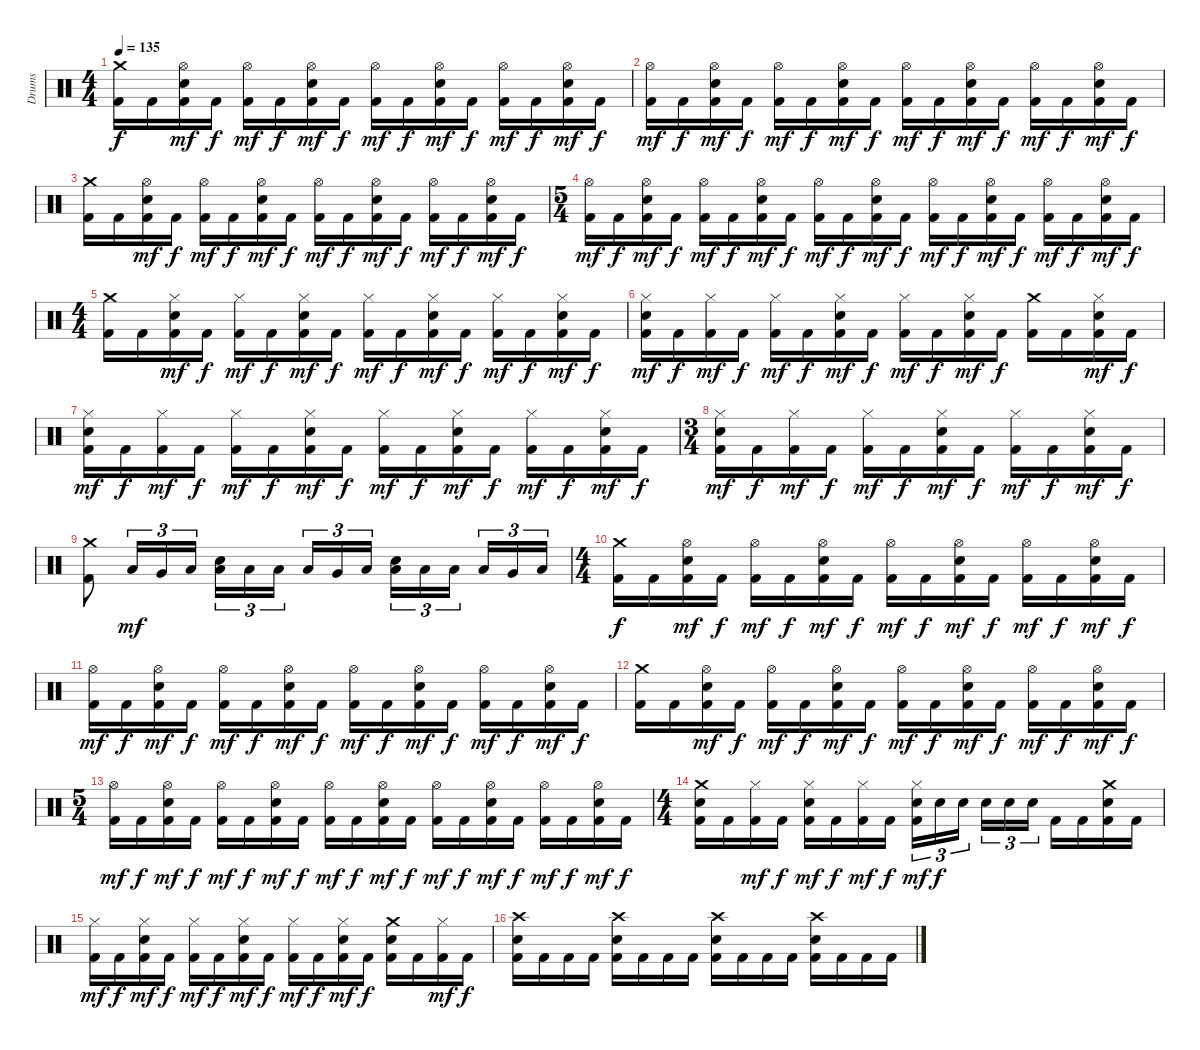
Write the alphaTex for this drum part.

\track ("Drums" "Drums") {instrument percussion}
\staff {score}
\articulation defaults
\ts (4 4)
\tempo 135
\clef neutral
\ks c
("Crash medium (hit)" "Kick (hit) 2").16{dy f} "Kick (hit) 2".16 ("Hi-Hat (open)" "Electric Snare (hit)" "Kick (hit) 2").16{dy mf} "Kick (hit) 2".16{dy f} ("Hi-Hat (open)" "Kick (hit) 2").16{dy mf} "Kick (hit) 2".16{dy f} ("Hi-Hat (open)" "Electric Snare (hit)" "Kick (hit) 2").16{dy mf} "Kick (hit) 2".16{dy f} ("Hi-Hat (open)" "Kick (hit) 2").16{dy mf} "Kick (hit) 2".16{dy f} ("Hi-Hat (open)" "Electric Snare (hit)" "Kick (hit) 2").16{dy mf} "Kick (hit) 2".16{dy f} ("Hi-Hat (open)" "Kick (hit) 2").16{dy mf} "Kick (hit) 2".16{dy f} ("Hi-Hat (open)" "Electric Snare (hit)" "Kick (hit) 2").16{dy mf} "Kick (hit) 2".16{dy f} |
("Hi-Hat (open)" "Kick (hit) 2").16{dy mf} "Kick (hit) 2".16{dy f} ("Hi-Hat (open)" "Electric Snare (hit)" "Kick (hit) 2").16{dy mf} "Kick (hit) 2".16{dy f} ("Hi-Hat (open)" "Kick (hit) 2").16{dy mf} "Kick (hit) 2".16{dy f} ("Hi-Hat (open)" "Electric Snare (hit)" "Kick (hit) 2").16{dy mf} "Kick (hit) 2".16{dy f} ("Hi-Hat (open)" "Kick (hit) 2").16{dy mf} "Kick (hit) 2".16{dy f} ("Hi-Hat (open)" "Electric Snare (hit)" "Kick (hit) 2").16{dy mf} "Kick (hit) 2".16{dy f} ("Hi-Hat (open)" "Kick (hit) 2").16{dy mf} "Kick (hit) 2".16{dy f} ("Hi-Hat (open)" "Electric Snare (hit)" "Kick (hit) 2").16{dy mf} "Kick (hit) 2".16{dy f} |
("Crash medium (hit)" "Kick (hit) 2").16 "Kick (hit) 2".16 ("Hi-Hat (open)" "Electric Snare (hit)" "Kick (hit) 2").16{dy mf} "Kick (hit) 2".16{dy f} ("Hi-Hat (open)" "Kick (hit) 2").16{dy mf} "Kick (hit) 2".16{dy f} ("Hi-Hat (open)" "Electric Snare (hit)" "Kick (hit) 2").16{dy mf} "Kick (hit) 2".16{dy f} ("Hi-Hat (open)" "Kick (hit) 2").16{dy mf} "Kick (hit) 2".16{dy f} ("Hi-Hat (open)" "Electric Snare (hit)" "Kick (hit) 2").16{dy mf} "Kick (hit) 2".16{dy f} ("Hi-Hat (open)" "Kick (hit) 2").16{dy mf} "Kick (hit) 2".16{dy f} ("Hi-Hat (open)" "Electric Snare (hit)" "Kick (hit) 2").16{dy mf} "Kick (hit) 2".16{dy f} |
\ts (5 4)
("Hi-Hat (open)" "Kick (hit) 2").16{dy mf} "Kick (hit) 2".16{dy f} ("Hi-Hat (open)" "Electric Snare (hit)" "Kick (hit) 2").16{dy mf} "Kick (hit) 2".16{dy f} ("Hi-Hat (open)" "Kick (hit) 2").16{dy mf} "Kick (hit) 2".16{dy f} ("Hi-Hat (open)" "Electric Snare (hit)" "Kick (hit) 2").16{dy mf} "Kick (hit) 2".16{dy f} ("Hi-Hat (open)" "Kick (hit) 2").16{dy mf} "Kick (hit) 2".16{dy f} ("Hi-Hat (open)" "Electric Snare (hit)" "Kick (hit) 2").16{dy mf} "Kick (hit) 2".16{dy f} ("Hi-Hat (open)" "Kick (hit) 2").16{dy mf} "Kick (hit) 2".16{dy f} ("Hi-Hat (open)" "Electric Snare (hit)" "Kick (hit) 2").16{dy mf} "Kick (hit) 2".16{dy f} ("Hi-Hat (open)" "Kick (hit) 2").16{dy mf} "Kick (hit) 2".16{dy f} ("Hi-Hat (open)" "Electric Snare (hit)" "Kick (hit) 2").16{dy mf} "Kick (hit) 2".16{dy f} |
\ts (4 4)
("Crash medium (hit)" "Kick (hit) 2").16 "Kick (hit) 2".16 ("Hi-Hat (closed)" "Electric Snare (hit)" "Kick (hit) 2").16{dy mf} "Kick (hit) 2".16{dy f} ("Hi-Hat (closed)" "Kick (hit) 2").16{dy mf} "Kick (hit) 2".16{dy f} ("Hi-Hat (closed)" "Electric Snare (hit)" "Kick (hit) 2").16{dy mf} "Kick (hit) 2".16{dy f} ("Hi-Hat (closed)" "Kick (hit) 2").16{dy mf} "Kick (hit) 2".16{dy f} ("Hi-Hat (closed)" "Electric Snare (hit)" "Kick (hit) 2").16{dy mf} "Kick (hit) 2".16{dy f} ("Hi-Hat (closed)" "Kick (hit) 2").16{dy mf} "Kick (hit) 2".16{dy f} ("Hi-Hat (closed)" "Electric Snare (hit)" "Kick (hit) 2").16{dy mf} "Kick (hit) 2".16{dy f} |
("Hi-Hat (closed)" "Electric Snare (hit)" "Kick (hit) 2").16{dy mf} "Kick (hit) 2".16{dy f} ("Hi-Hat (closed)" "Kick (hit) 2").16{dy mf} "Kick (hit) 2".16{dy f} ("Hi-Hat (closed)" "Kick (hit) 2").16{dy mf} "Kick (hit) 2".16{dy f} ("Hi-Hat (closed)" "Electric Snare (hit)" "Kick (hit) 2").16{dy mf} "Kick (hit) 2".16{dy f} ("Hi-Hat (closed)" "Kick (hit) 2").16{dy mf} "Kick (hit) 2".16{dy f} ("Hi-Hat (closed)" "Electric Snare (hit)" "Kick (hit) 2").16{dy mf} "Kick (hit) 2".16{dy f} ("Crash medium (hit)" "Kick (hit) 2").16 "Kick (hit) 2".16 ("Hi-Hat (closed)" "Electric Snare (hit)" "Kick (hit) 2").16{dy mf} "Kick (hit) 2".16{dy f} |
("Hi-Hat (closed)" "Electric Snare (hit)" "Kick (hit) 2").16{dy mf} "Kick (hit) 2".16{dy f} ("Hi-Hat (closed)" "Kick (hit) 2").16{dy mf} "Kick (hit) 2".16{dy f} ("Hi-Hat (closed)" "Kick (hit) 2").16{dy mf} "Kick (hit) 2".16{dy f} ("Hi-Hat (closed)" "Electric Snare (hit)" "Kick (hit) 2").16{dy mf} "Kick (hit) 2".16{dy f} ("Hi-Hat (closed)" "Kick (hit) 2").16{dy mf} "Kick (hit) 2".16{dy f} ("Hi-Hat (closed)" "Electric Snare (hit)" "Kick (hit) 2").16{dy mf} "Kick (hit) 2".16{dy f} ("Hi-Hat (closed)" "Kick (hit) 2").16{dy mf} "Kick (hit) 2".16{dy f} ("Hi-Hat (closed)" "Electric Snare (hit)" "Kick (hit) 2").16{dy mf} "Kick (hit) 2".16{dy f} |
\ts (3 4)
("Hi-Hat (closed)" "Electric Snare (hit)" "Kick (hit) 2").16{dy mf} "Kick (hit) 2".16{dy f} ("Hi-Hat (closed)" "Kick (hit) 2").16{dy mf} "Kick (hit) 2".16{dy f} ("Hi-Hat (closed)" "Kick (hit) 2").16{dy mf} "Kick (hit) 2".16{dy f} ("Hi-Hat (closed)" "Electric Snare (hit)" "Kick (hit) 2").16{dy mf} "Kick (hit) 2".16{dy f} ("Hi-Hat (closed)" "Kick (hit) 2").16{dy mf} "Kick (hit) 2".16{dy f} ("Hi-Hat (closed)" "Electric Snare (hit)" "Kick (hit) 2").16{dy mf} "Kick (hit) 2".16{dy f} |
("Crash medium (hit)" "Kick (hit) 2").8 "Low Tom (hit)".16{tu (3 2) dy mf} "Very Low Tom (hit)".16{tu (3 2)} "Low Floor Tom (hit)".16{tu (3 2)} ("Low Tom (hit)" "Electric Snare (hit)").16{tu (3 2)} "Low Tom (hit)".16{tu (3 2)} "Low Tom (hit)".16{tu (3 2)} "Low Tom (hit)".16{tu (3 2)} "Very Low Tom (hit)".16{tu (3 2)} "Low Floor Tom (hit)".16{tu (3 2)} ("Low Tom (hit)" "Electric Snare (hit)").16{tu (3 2)} "Low Tom (hit)".16{tu (3 2)} "Low Tom (hit)".16{tu (3 2)} "Low Tom (hit)".16{tu (3 2)} "Very Low Tom (hit)".16{tu (3 2)} "Low Floor Tom (hit)".16{tu (3 2)} |
\ts (4 4)
("Crash medium (hit)" "Kick (hit) 2").16{dy f} "Kick (hit) 2".16 ("Hi-Hat (open)" "Electric Snare (hit)" "Kick (hit) 2").16{dy mf} "Kick (hit) 2".16{dy f} ("Hi-Hat (open)" "Kick (hit) 2").16{dy mf} "Kick (hit) 2".16{dy f} ("Hi-Hat (open)" "Electric Snare (hit)" "Kick (hit) 2").16{dy mf} "Kick (hit) 2".16{dy f} ("Hi-Hat (open)" "Kick (hit) 2").16{dy mf} "Kick (hit) 2".16{dy f} ("Hi-Hat (open)" "Electric Snare (hit)" "Kick (hit) 2").16{dy mf} "Kick (hit) 2".16{dy f} ("Hi-Hat (open)" "Kick (hit) 2").16{dy mf} "Kick (hit) 2".16{dy f} ("Hi-Hat (open)" "Electric Snare (hit)" "Kick (hit) 2").16{dy mf} "Kick (hit) 2".16{dy f} |
("Hi-Hat (open)" "Kick (hit) 2").16{dy mf} "Kick (hit) 2".16{dy f} ("Hi-Hat (open)" "Electric Snare (hit)" "Kick (hit) 2").16{dy mf} "Kick (hit) 2".16{dy f} ("Hi-Hat (open)" "Kick (hit) 2").16{dy mf} "Kick (hit) 2".16{dy f} ("Hi-Hat (open)" "Electric Snare (hit)" "Kick (hit) 2").16{dy mf} "Kick (hit) 2".16{dy f} ("Hi-Hat (open)" "Kick (hit) 2").16{dy mf} "Kick (hit) 2".16{dy f} ("Hi-Hat (open)" "Electric Snare (hit)" "Kick (hit) 2").16{dy mf} "Kick (hit) 2".16{dy f} ("Hi-Hat (open)" "Kick (hit) 2").16{dy mf} "Kick (hit) 2".16{dy f} ("Hi-Hat (open)" "Electric Snare (hit)" "Kick (hit) 2").16{dy mf} "Kick (hit) 2".16{dy f} |
("Crash medium (hit)" "Kick (hit) 2").16 "Kick (hit) 2".16 ("Hi-Hat (open)" "Electric Snare (hit)" "Kick (hit) 2").16{dy mf} "Kick (hit) 2".16{dy f} ("Hi-Hat (open)" "Kick (hit) 2").16{dy mf} "Kick (hit) 2".16{dy f} ("Hi-Hat (open)" "Electric Snare (hit)" "Kick (hit) 2").16{dy mf} "Kick (hit) 2".16{dy f} ("Hi-Hat (open)" "Kick (hit) 2").16{dy mf} "Kick (hit) 2".16{dy f} ("Hi-Hat (open)" "Electric Snare (hit)" "Kick (hit) 2").16{dy mf} "Kick (hit) 2".16{dy f} ("Hi-Hat (open)" "Kick (hit) 2").16{dy mf} "Kick (hit) 2".16{dy f} ("Hi-Hat (open)" "Electric Snare (hit)" "Kick (hit) 2").16{dy mf} "Kick (hit) 2".16{dy f} |
\ts (5 4)
("Hi-Hat (open)" "Kick (hit) 2").16{dy mf} "Kick (hit) 2".16{dy f} ("Hi-Hat (open)" "Electric Snare (hit)" "Kick (hit) 2").16{dy mf} "Kick (hit) 2".16{dy f} ("Hi-Hat (open)" "Kick (hit) 2").16{dy mf} "Kick (hit) 2".16{dy f} ("Hi-Hat (open)" "Electric Snare (hit)" "Kick (hit) 2").16{dy mf} "Kick (hit) 2".16{dy f} ("Hi-Hat (open)" "Kick (hit) 2").16{dy mf} "Kick (hit) 2".16{dy f} ("Hi-Hat (open)" "Electric Snare (hit)" "Kick (hit) 2").16{dy mf} "Kick (hit) 2".16{dy f} ("Hi-Hat (open)" "Kick (hit) 2").16{dy mf} "Kick (hit) 2".16{dy f} ("Hi-Hat (open)" "Electric Snare (hit)" "Kick (hit) 2").16{dy mf} "Kick (hit) 2".16{dy f} ("Hi-Hat (open)" "Kick (hit) 2").16{dy mf} "Kick (hit) 2".16{dy f} ("Hi-Hat (open)" "Electric Snare (hit)" "Kick (hit) 2").16{dy mf} "Kick (hit) 2".16{dy f} |
\ts (4 4)
("Crash medium (hit)" "Electric Snare (hit)" "Kick (hit) 2").16 "Kick (hit) 2".16 ("Hi-Hat (closed)" "Kick (hit) 2").16{dy mf} "Kick (hit) 2".16{dy f} ("Hi-Hat (closed)" "Electric Snare (hit)" "Kick (hit) 2").16{dy mf} "Kick (hit) 2".16{dy f} ("Hi-Hat (closed)" "Kick (hit) 2").16{dy mf} "Kick (hit) 2".16{dy f} ("Hi-Hat (closed)" "Electric Snare (hit)" "Kick (hit) 2").16{tu (3 2) dy mf} "Electric Snare (hit)".16{tu (3 2) dy f} "Electric Snare (hit)".16{tu (3 2)} "Electric Snare (hit)".16{tu (3 2)} "Electric Snare (hit)".16{tu (3 2)} "Electric Snare (hit)".16{tu (3 2)} "Kick (hit) 2".16 "Kick (hit) 2".16 ("Crash medium (hit)" "Electric Snare (hit)" "Kick (hit) 2").16 "Kick (hit) 2".16 |
("Hi-Hat (closed)" "Kick (hit) 2").16{dy mf} "Kick (hit) 2".16{dy f} ("Hi-Hat (closed)" "Electric Snare (hit)" "Kick (hit) 2").16{dy mf} "Kick (hit) 2".16{dy f} ("Hi-Hat (closed)" "Kick (hit) 2").16{dy mf} "Kick (hit) 2".16{dy f} ("Hi-Hat (closed)" "Electric Snare (hit)" "Kick (hit) 2").16{dy mf} "Kick (hit) 2".16{dy f} ("Hi-Hat (closed)" "Kick (hit) 2").16{dy mf} "Kick (hit) 2".16{dy f} ("Hi-Hat (closed)" "Electric Snare (hit)" "Kick (hit) 2").16{dy mf} "Kick (hit) 2".16{dy f} ("Crash medium (hit)" "Electric Snare (hit)" "Kick (hit) 2").16 "Kick (hit) 2".16 ("Hi-Hat (closed)" "Kick (hit) 2").16{dy mf} "Kick (hit) 2".16{dy f} |
("Crash high (hit)" "Electric Snare (hit)" "Kick (hit) 2").16 "Kick (hit) 2".16 "Kick (hit) 2".16 "Kick (hit) 2".16 ("Crash high (hit)" "Electric Snare (hit)" "Kick (hit) 2").16 "Kick (hit) 2".16 "Kick (hit) 2".16 "Kick (hit) 2".16 ("Crash high (hit)" "Electric Snare (hit)" "Kick (hit) 2").16 "Kick (hit) 2".16 "Kick (hit) 2".16 "Kick (hit) 2".16 ("Crash high (hit)" "Electric Snare (hit)" "Kick (hit) 2").16 "Kick (hit) 2".16 "Kick (hit) 2".16 "Kick (hit) 2".16
